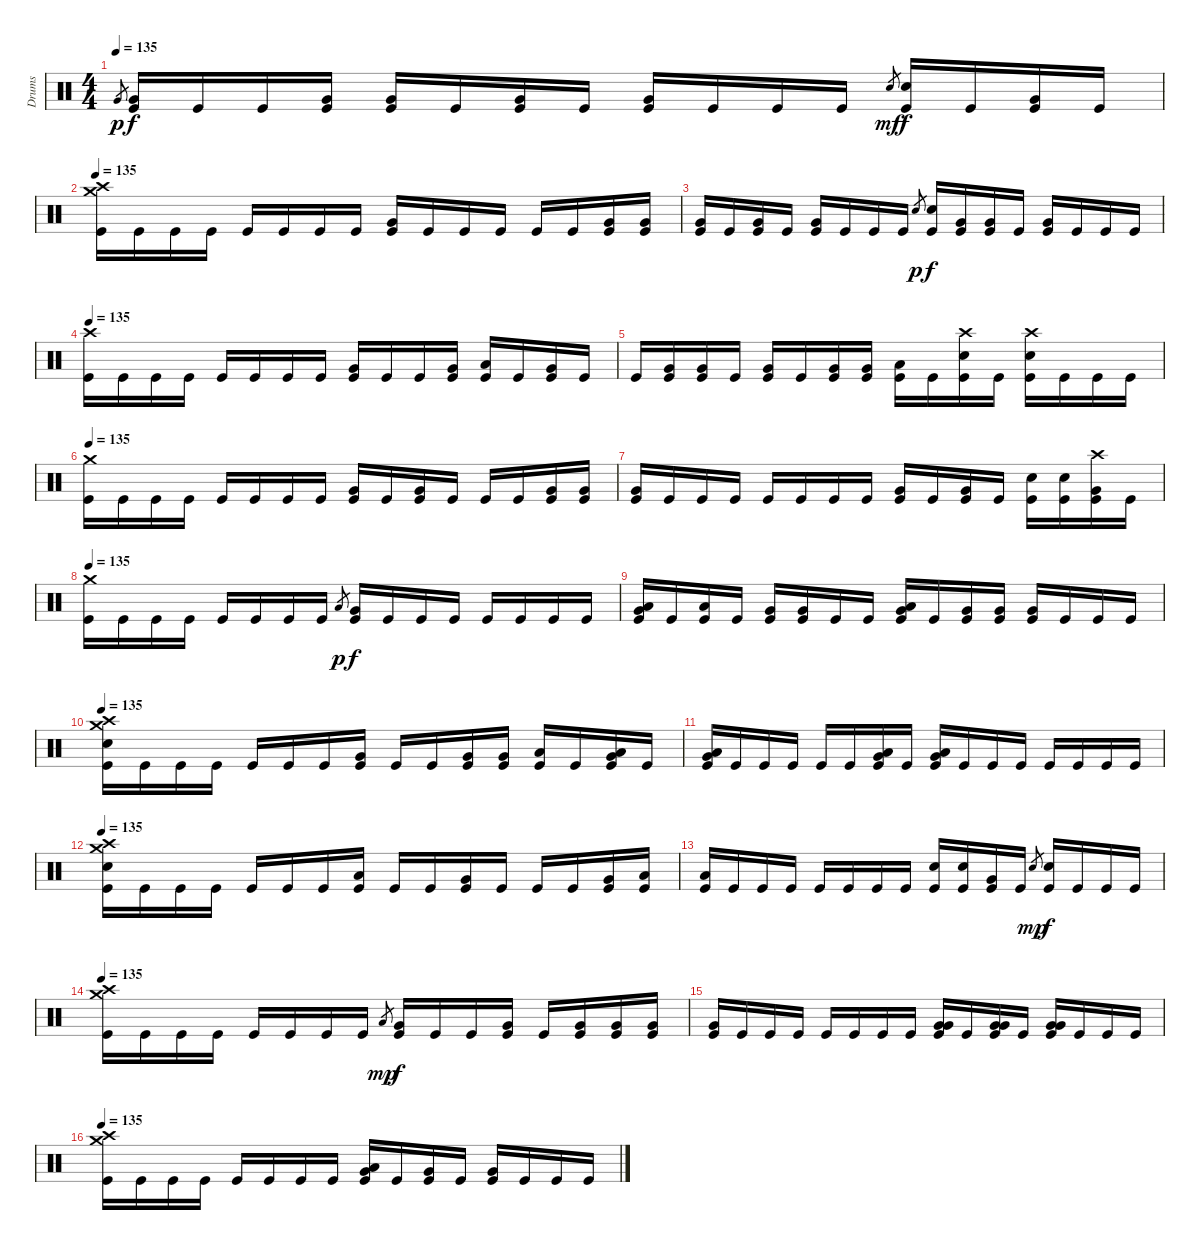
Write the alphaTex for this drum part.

\track ("Drums" "Drums") {instrument percussion}
\staff {score}
\articulation defaults
\ts (4 4)
\tempo 135
\clef neutral
\ks c "Very Low Tom (hit)".8{gr dy p}
("Kick (hit)" "Very Low Tom (hit)").16{dy f} "Kick (hit)".16 "Kick (hit)".16 ("Kick (hit)" "Very Low Tom (hit)").16 ("Kick (hit)" "Very Low Tom (hit)").16 "Kick (hit)".16 ("Kick (hit)" "Very Low Tom (hit)").16 "Kick (hit)".16 ("Kick (hit)" "Very Low Tom (hit)").16 "Kick (hit)".16 "Kick (hit)".16 "Kick (hit)".16 "Electric Snare (hit)".8{gr dy mf} ("Kick (hit)" "Electric Snare (hit)").16{dy f} "Kick (hit)".16 ("Kick (hit)" "Very Low Tom (hit)").16 "Kick (hit)".16 |
\tempo 135
("Kick (hit)" "Crash high (hit)" "Crash medium (hit)").16 "Kick (hit)".16 "Kick (hit)".16 "Kick (hit)".16 "Kick (hit)".16 "Kick (hit)".16 "Kick (hit)".16 "Kick (hit)".16 ("Kick (hit)" "Very Low Tom (hit)").16 "Kick (hit)".16 "Kick (hit)".16 "Kick (hit)".16 "Kick (hit)".16 "Kick (hit)".16 ("Kick (hit)" "Very Low Tom (hit)").16 ("Kick (hit)" "Very Low Tom (hit)").16 |
("Kick (hit)" "Very Low Tom (hit)").16 "Kick (hit)".16 ("Kick (hit)" "Very Low Tom (hit)").16 "Kick (hit)".16 ("Kick (hit)" "Very Low Tom (hit)").16 "Kick (hit)".16 "Kick (hit)".16 "Kick (hit)".16 "Electric Snare (hit)".8{gr dy p} ("Kick (hit)" "Electric Snare (hit)").16{dy f} ("Kick (hit)" "Very Low Tom (hit)").16 ("Kick (hit)" "Very Low Tom (hit)").16 "Kick (hit)".16 ("Kick (hit)" "Very Low Tom (hit)").16 "Kick (hit)".16 "Kick (hit)".16 "Kick (hit)".16 |
\tempo 135
("Kick (hit)" "Crash high (hit)").16 "Kick (hit)".16 "Kick (hit)".16 "Kick (hit)".16 "Kick (hit)".16 "Kick (hit)".16 "Kick (hit)".16 "Kick (hit)".16 ("Kick (hit)" "Very Low Tom (hit)").16 "Kick (hit)".16 "Kick (hit)".16 ("Kick (hit)" "Very Low Tom (hit)").16 ("Kick (hit)" "Low Floor Tom (hit)").16 "Kick (hit)".16 ("Kick (hit)" "Very Low Tom (hit)").16 "Kick (hit)".16 |
"Kick (hit)".16 ("Kick (hit)" "Very Low Tom (hit)").16 ("Kick (hit)" "Very Low Tom (hit)").16 "Kick (hit)".16 ("Kick (hit)" "Very Low Tom (hit)").16 "Kick (hit)".16 ("Kick (hit)" "Very Low Tom (hit)").16 ("Kick (hit)" "Very Low Tom (hit)").16 ("Kick (hit)" "Low Floor Tom (hit)").16 "Kick (hit)".16 ("Kick (hit)" "Electric Snare (hit)" "Crash high (hit)").16 "Kick (hit)".16 ("Kick (hit)" "Electric Snare (hit)" "Crash high (hit)").16 "Kick (hit)".16 "Kick (hit)".16 "Kick (hit)".16 |
\tempo 135
("Kick (hit)" "Crash medium (hit)").16 "Kick (hit)".16 "Kick (hit)".16 "Kick (hit)".16 "Kick (hit)".16 "Kick (hit)".16 "Kick (hit)".16 "Kick (hit)".16 ("Kick (hit)" "Very Low Tom (hit)").16 "Kick (hit)".16 ("Kick (hit)" "Very Low Tom (hit)").16 "Kick (hit)".16 "Kick (hit)".16 "Kick (hit)".16 ("Kick (hit)" "Very Low Tom (hit)").16 ("Kick (hit)" "Very Low Tom (hit)").16 |
("Kick (hit)" "Very Low Tom (hit)").16 "Kick (hit)".16 "Kick (hit)".16 "Kick (hit)".16 "Kick (hit)".16 "Kick (hit)".16 "Kick (hit)".16 "Kick (hit)".16 ("Kick (hit)" "Very Low Tom (hit)").16 "Kick (hit)".16 ("Kick (hit)" "Very Low Tom (hit)").16 "Kick (hit)".16 ("Kick (hit)" "Electric Snare (hit)").16 ("Kick (hit)" "Electric Snare (hit)").16 ("Kick (hit)" "Very Low Tom (hit)" "Crash high (hit)").16 "Kick (hit)".16 |
\tempo 135
("Kick (hit)" "Crash medium (hit)").16 "Kick (hit)".16 "Kick (hit)".16 "Kick (hit)".16 "Kick (hit)".16 "Kick (hit)".16 "Kick (hit)".16 "Kick (hit)".16 "Low Floor Tom (hit)".8{gr dy p} ("Kick (hit)" "Very Low Tom (hit)").16{dy f} "Kick (hit)".16 "Kick (hit)".16 "Kick (hit)".16 "Kick (hit)".16 "Kick (hit)".16 "Kick (hit)".16 "Kick (hit)".16 |
("Kick (hit)" "Low Tom (hit)" "Very Low Tom (hit)").16 "Kick (hit)".16 ("Kick (hit)" "Low Tom (hit)").16 "Kick (hit)".16 ("Kick (hit)" "Very Low Tom (hit)").16 ("Kick (hit)" "Very Low Tom (hit)").16 "Kick (hit)".16 "Kick (hit)".16 ("Kick (hit)" "Low Tom (hit)" "Very Low Tom (hit)").16 "Kick (hit)".16 ("Kick (hit)" "Very Low Tom (hit)").16 ("Kick (hit)" "Very Low Tom (hit)").16 ("Kick (hit)" "Very Low Tom (hit)").16 "Kick (hit)".16 "Kick (hit)".16 "Kick (hit)".16 |
\tempo 135
("Kick (hit)" "Electric Snare (hit)" "Crash high (hit)" "Crash medium (hit)").16 "Kick (hit)".16 "Kick (hit)".16 "Kick (hit)".16 "Kick (hit)".16 "Kick (hit)".16 "Kick (hit)".16 ("Kick (hit)" "Very Low Tom (hit)").16 "Kick (hit)".16 "Kick (hit)".16 ("Kick (hit)" "Very Low Tom (hit)").16 ("Kick (hit)" "Very Low Tom (hit)").16 ("Kick (hit)" "Low Floor Tom (hit)").16 "Kick (hit)".16 ("Kick (hit)" "Very Low Tom (hit)" "Low Floor Tom (hit)").16 "Kick (hit)".16 |
("Kick (hit)" "Very Low Tom (hit)" "Low Floor Tom (hit)").16 "Kick (hit)".16 "Kick (hit)".16 "Kick (hit)".16 "Kick (hit)".16 "Kick (hit)".16 ("Kick (hit)" "Very Low Tom (hit)" "Low Floor Tom (hit)").16 "Kick (hit)".16 ("Kick (hit)" "Very Low Tom (hit)" "Low Floor Tom (hit)").16 "Kick (hit)".16 "Kick (hit)".16 "Kick (hit)".16 "Kick (hit)".16 "Kick (hit)".16 "Kick (hit)".16 "Kick (hit)".16 |
\tempo 135
("Kick (hit)" "Electric Snare (hit)" "Crash high (hit)" "Crash medium (hit)").16 "Kick (hit)".16 "Kick (hit)".16 "Kick (hit)".16 "Kick (hit)".16 "Kick (hit)".16 "Kick (hit)".16 ("Kick (hit)" "Low Tom (hit)").16 "Kick (hit)".16 "Kick (hit)".16 ("Kick (hit)" "Very Low Tom (hit)").16 "Kick (hit)".16 "Kick (hit)".16 "Kick (hit)".16 ("Kick (hit)" "Very Low Tom (hit)").16 ("Kick (hit)" "Low Floor Tom (hit)").16 |
("Kick (hit)" "Low Floor Tom (hit)").16 "Kick (hit)".16 "Kick (hit)".16 "Kick (hit)".16 "Kick (hit)".16 "Kick (hit)".16 "Kick (hit)".16 "Kick (hit)".16 ("Kick (hit)" "Electric Snare (hit)").16 ("Kick (hit)" "Electric Snare (hit)").16 ("Kick (hit)" "Very Low Tom (hit)").16 "Kick (hit)".16 "Electric Snare (hit)".8{gr dy mp} ("Kick (hit)" "Electric Snare (hit)").16{dy f} "Kick (hit)".16 "Kick (hit)".16 "Kick (hit)".16 |
\tempo 135
("Kick (hit)" "Crash high (hit)" "Crash medium (hit)").16 "Kick (hit)".16 "Kick (hit)".16 "Kick (hit)".16 "Kick (hit)".16 "Kick (hit)".16 "Kick (hit)".16 "Kick (hit)".16 "Low Floor Tom (hit)".8{gr dy mp} ("Kick (hit)" "Very Low Tom (hit)").16{dy f} "Kick (hit)".16 "Kick (hit)".16 ("Kick (hit)" "Very Low Tom (hit)").16 "Kick (hit)".16 ("Kick (hit)" "Very Low Tom (hit)").16 ("Kick (hit)" "Very Low Tom (hit)").16 ("Kick (hit)" "Very Low Tom (hit)").16 |
("Kick (hit)" "Very Low Tom (hit)").16 "Kick (hit)".16 "Kick (hit)".16 "Kick (hit)".16 "Kick (hit)".16 "Kick (hit)".16 "Kick (hit)".16 "Kick (hit)".16 ("Kick (hit)" "Very Low Tom (hit)" "Very Low Tom (hit)").16 "Kick (hit)".16 ("Kick (hit)" "Very Low Tom (hit)" "Very Low Tom (hit)").16 "Kick (hit)".16 ("Kick (hit)" "Very Low Tom (hit)" "Very Low Tom (hit)").16 "Kick (hit)".16 "Kick (hit)".16 "Kick (hit)".16 |
\tempo 135
("Kick (hit)" "Crash high (hit)" "Crash medium (hit)").16 "Kick (hit)".16 "Kick (hit)".16 "Kick (hit)".16 "Kick (hit)".16 "Kick (hit)".16 "Kick (hit)".16 "Kick (hit)".16 ("Kick (hit)" "Very Low Tom (hit)" "Low Tom (hit)").16 "Kick (hit)".16 ("Kick (hit)" "Very Low Tom (hit)").16 "Kick (hit)".16 ("Kick (hit)" "Very Low Tom (hit)").16 "Kick (hit)".16 "Kick (hit)".16 "Kick (hit)".16
